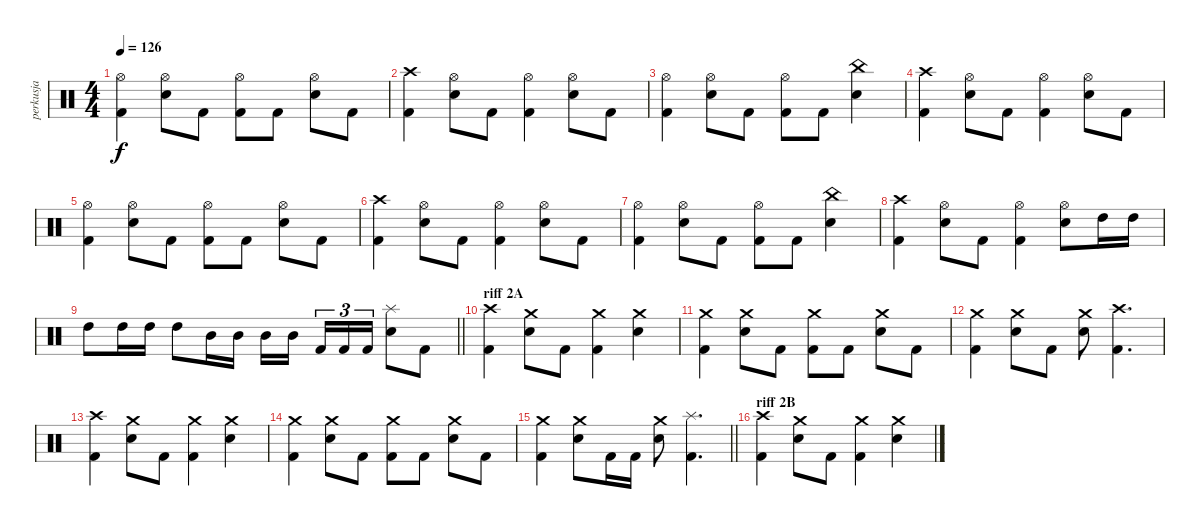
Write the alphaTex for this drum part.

\track ("perkusja" "perkusja") {instrument percussion}
\staff {score}
\articulation defaults
\ts (4 4)
\tempo 126
\clef neutral
\ks c
("Hi-Hat (open)" "Kick (hit) 2").4{dy f} ("Hi-Hat (open)" "Electric Snare (hit)").8 "Kick (hit) 2".8 ("Hi-Hat (open)" "Kick (hit) 2").8 "Kick (hit) 2".8 ("Hi-Hat (open)" "Electric Snare (hit)").8 "Kick (hit) 2".8 |
("Crash high (hit)" "Kick (hit) 2").4 ("Hi-Hat (open)" "Electric Snare (hit)").8 "Kick (hit) 2".8 ("Hi-Hat (open)" "Kick (hit) 2").4 ("Hi-Hat (open)" "Electric Snare (hit)").8 "Kick (hit) 2".8 |
("Hi-Hat (open)" "Kick (hit) 2").4 ("Hi-Hat (open)" "Electric Snare (hit)").8 "Kick (hit) 2".8 ("Hi-Hat (open)" "Kick (hit) 2").8 "Kick (hit) 2".8 ("China (hit)" "Electric Snare (hit)").4 |
("Crash high (hit)" "Kick (hit) 2").4 ("Hi-Hat (open)" "Electric Snare (hit)").8 "Kick (hit) 2".8 ("Hi-Hat (open)" "Kick (hit) 2").4 ("Hi-Hat (open)" "Electric Snare (hit)").8 "Kick (hit) 2".8 |
("Hi-Hat (open)" "Kick (hit) 2").4 ("Hi-Hat (open)" "Electric Snare (hit)").8 "Kick (hit) 2".8 ("Hi-Hat (open)" "Kick (hit) 2").8 "Kick (hit) 2".8 ("Hi-Hat (open)" "Electric Snare (hit)").8 "Kick (hit) 2".8 |
("Crash high (hit)" "Kick (hit) 2").4 ("Hi-Hat (open)" "Electric Snare (hit)").8 "Kick (hit) 2".8 ("Hi-Hat (open)" "Kick (hit) 2").4 ("Hi-Hat (open)" "Electric Snare (hit)").8 "Kick (hit) 2".8 |
("Hi-Hat (open)" "Kick (hit) 2").4 ("Hi-Hat (open)" "Electric Snare (hit)").8 "Kick (hit) 2".8 ("Hi-Hat (open)" "Kick (hit) 2").8 "Kick (hit) 2".8 ("China (hit)" "Electric Snare (hit)").4 |
("Crash high (hit)" "Kick (hit) 2").4 ("Hi-Hat (open)" "Electric Snare (hit)").8 "Kick (hit) 2".8 ("Hi-Hat (open)" "Kick (hit) 2").4 ("Hi-Hat (open)" "Electric Snare (hit)").8 "High Tom (hit)".16 "High Tom (hit)".16 |
\barLineRight lightlight "High Tom (hit)".8 "High Tom (hit)".16 "High Tom (hit)".16 "High Tom (hit)".8 "Mid Tom (hit)".16 "Mid Tom (hit)".16 "Mid Tom (hit)".16 "Mid Tom (hit)".16{beam splitsecondary} "Kick (hit) 2".16{tu (3 2)} "Kick (hit) 2".16{tu (3 2)} "Kick (hit) 2".16{tu (3 2)}
("Splash (hit)" "Electric Snare (hit)").8 "Kick (hit) 2".8 |
\section ("" "riff 2A")
("Crash high (hit)" "Kick (hit) 2").4 ("Crash medium (hit)" "Electric Snare (hit)").8 "Kick (hit) 2".8 ("Crash medium (hit)" "Kick (hit) 2").4 ("Crash medium (hit)" "Electric Snare (hit)").4 |
("Crash medium (hit)" "Kick (hit) 2").4 ("Crash medium (hit)" "Electric Snare (hit)").8 "Kick (hit) 2".8 ("Crash medium (hit)" "Kick (hit) 2").8 "Kick (hit) 2".8 ("Crash medium (hit)" "Electric Snare (hit)").8 "Kick (hit) 2".8 |
("Crash medium (hit)" "Kick (hit) 2").4 ("Crash medium (hit)" "Electric Snare (hit)").8 "Kick (hit) 2".8 ("Crash medium (hit)" "Electric Snare (hit)").8 ("Crash high (hit)" "Kick (hit) 2").4{d} |
("Crash high (hit)" "Kick (hit) 2").4 ("Crash medium (hit)" "Electric Snare (hit)").8 "Kick (hit) 2".8 ("Crash medium (hit)" "Kick (hit) 2").4 ("Crash medium (hit)" "Electric Snare (hit)").4 |
("Crash medium (hit)" "Kick (hit) 2").4 ("Crash medium (hit)" "Electric Snare (hit)").8 "Kick (hit) 2".8 ("Crash medium (hit)" "Kick (hit) 2").8 "Kick (hit) 2".8 ("Crash medium (hit)" "Electric Snare (hit)").8 "Kick (hit) 2".8 |
\barLineRight lightlight
("Crash medium (hit)" "Kick (hit) 2").4 ("Crash medium (hit)" "Electric Snare (hit)").8 "Kick (hit) 2".16 "Kick (hit) 2".16 ("Crash medium (hit)" "Electric Snare (hit)").8 ("Splash (hit)" "Kick (hit) 2").4{d} |
\section ("" "riff 2B")
("Crash high (hit)" "Kick (hit) 2").4 ("Crash medium (hit)" "Electric Snare (hit)").8 "Kick (hit) 2".8 ("Crash medium (hit)" "Kick (hit) 2").4 ("Crash medium (hit)" "Electric Snare (hit)").4
